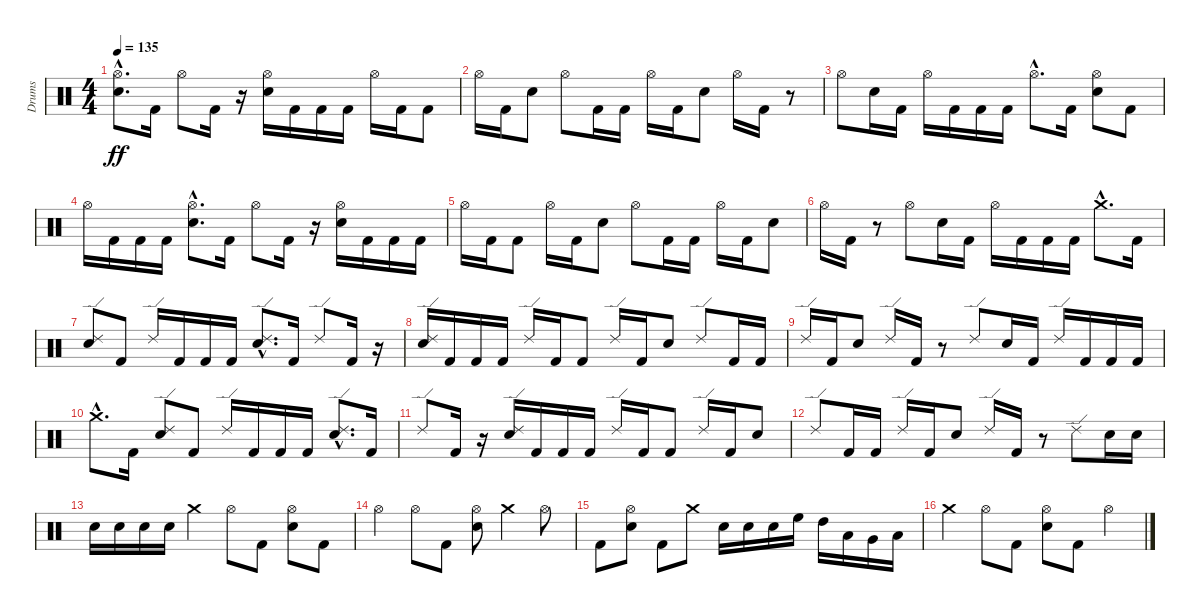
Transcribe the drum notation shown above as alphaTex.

\track ("Drums" "Drums") {instrument percussion}
\staff {score}
\articulation defaults
\ts (4 4)
\tempo 135
\clef neutral
\ks c
("Electric Snare (hit)"{hac} "Hi-Hat (open)"{hac}).8{d dy ff} "Kick (hit) 2".16 "Hi-Hat (open)".8 "Kick (hit) 2".16 r.16 ("Electric Snare (hit)" "Hi-Hat (open)").16 "Kick (hit) 2".16 "Kick (hit) 2".16 "Kick (hit) 2".16 "Hi-Hat (open)".16 "Kick (hit) 2".16 "Kick (hit) 2".8 |
"Hi-Hat (open)".16 "Kick (hit) 2".16 "Electric Snare (hit)".8 "Hi-Hat (open)".8 "Kick (hit) 2".16 "Kick (hit) 2".16 "Hi-Hat (open)".16 "Kick (hit) 2".16 "Electric Snare (hit)".8 "Hi-Hat (open)".16 "Kick (hit) 2".16 r.8 |
"Hi-Hat (open)".8 "Electric Snare (hit)".16 "Kick (hit) 2".16 "Hi-Hat (open)".16 "Kick (hit) 2".16 "Kick (hit) 2".16 "Kick (hit) 2".16 "Hi-Hat (open)"{hac}.8{d} "Kick (hit) 2".16 ("Electric Snare (hit)" "Hi-Hat (open)").8 "Kick (hit) 2".8 |
"Hi-Hat (open)".16 "Kick (hit) 2".16 "Kick (hit) 2".16 "Kick (hit) 2".16 ("Electric Snare (hit)"{hac} "Hi-Hat (open)"{hac}).8{d} "Kick (hit) 2".16 "Hi-Hat (open)".8 "Kick (hit) 2".16 r.16 ("Electric Snare (hit)" "Hi-Hat (open)").16 "Kick (hit) 2".16 "Kick (hit) 2".16 "Kick (hit) 2".16 |
"Hi-Hat (open)".16 "Kick (hit) 2".16 "Kick (hit) 2".8 "Hi-Hat (open)".16 "Kick (hit) 2".16 "Electric Snare (hit)".8 "Hi-Hat (open)".8 "Kick (hit) 2".16 "Kick (hit) 2".16 "Hi-Hat (open)".16 "Kick (hit) 2".16 "Electric Snare (hit)".8 |
"Hi-Hat (open)".16 "Kick (hit) 2".16 r.8 "Hi-Hat (open)".8 "Electric Snare (hit)".16 "Kick (hit) 2".16 "Hi-Hat (open)".16 "Kick (hit) 2".16 "Kick (hit) 2".16 "Kick (hit) 2".16 "Crash medium (hit)"{hac}.8{d} "Kick (hit) 2".16 |
("Electric Snare (hit)" "Ride (edge) 2").8 "Kick (hit) 2".8 "Ride (edge) 2".16 "Kick (hit) 2".16 "Kick (hit) 2".16 "Kick (hit) 2".16 ("Electric Snare (hit)"{hac} "Ride (edge) 2"{hac}).8{d} "Kick (hit) 2".16 "Ride (edge) 2".8 "Kick (hit) 2".16 r.16 |
("Electric Snare (hit)" "Ride (edge) 2").16 "Kick (hit) 2".16 "Kick (hit) 2".16 "Kick (hit) 2".16 "Ride (edge) 2".16 "Kick (hit) 2".16 "Kick (hit) 2".8 "Ride (edge) 2".16 "Kick (hit) 2".16 "Electric Snare (hit)".8 "Ride (edge) 2".8 "Kick (hit) 2".16 "Kick (hit) 2".16 |
"Ride (edge) 2".16 "Kick (hit) 2".16 "Electric Snare (hit)".8 "Ride (edge) 2".16 "Kick (hit) 2".16 r.8 "Ride (edge) 2".8 "Electric Snare (hit)".16 "Kick (hit) 2".16 "Ride (edge) 2".16 "Kick (hit) 2".16 "Kick (hit) 2".16 "Kick (hit) 2".16 |
"Crash medium (hit)"{hac}.8{d} "Kick (hit) 2".16 ("Electric Snare (hit)" "Ride (edge) 2").8 "Kick (hit) 2".8 "Ride (edge) 2".16 "Kick (hit) 2".16 "Kick (hit) 2".16 "Kick (hit) 2".16 ("Electric Snare (hit)"{hac} "Ride (edge) 2"{hac}).8{d} "Kick (hit) 2".16 |
"Ride (edge) 2".8 "Kick (hit) 2".16 r.16 ("Electric Snare (hit)" "Ride (edge) 2").16 "Kick (hit) 2".16 "Kick (hit) 2".16 "Kick (hit) 2".16 "Ride (edge) 2".16 "Kick (hit) 2".16 "Kick (hit) 2".8 "Ride (edge) 2".16 "Kick (hit) 2".16 "Electric Snare (hit)".8 |
"Ride (edge) 2".8 "Kick (hit) 2".16 "Kick (hit) 2".16 "Ride (edge) 2".16 "Kick (hit) 2".16 "Electric Snare (hit)".8 "Ride (edge) 2".16 "Kick (hit) 2".16 r.8 "Ride (edge) 2".8 "Electric Snare (hit)".16 "Electric Snare (hit)".16 |
"Electric Snare (hit)".16 "Electric Snare (hit)".16 "Electric Snare (hit)".16 "Electric Snare (hit)".16 "Crash medium (hit)".4 "Hi-Hat (open)".8 "Kick (hit) 2".8 ("Electric Snare (hit)" "Hi-Hat (open)").8 "Kick (hit) 2".8 |
"Hi-Hat (open)".4 "Hi-Hat (open)".8 "Kick (hit) 2".8 ("Electric Snare (hit)" "Hi-Hat (open)").8 "Crash medium (hit)".4 "Hi-Hat (open)".8 |
"Kick (hit) 2".8 ("Electric Snare (hit)" "Hi-Hat (open)").8 "Kick (hit) 2".8 "Crash medium (hit)".8 "Electric Snare (hit)".16 "Electric Snare (hit)".16 "Electric Snare (hit)".16 "High Floor Tom (hit)".16 "High Tom (hit)".16 "Low Tom (hit)".16 "Very Low Tom (hit)".16 "Low Floor Tom (hit)".16 |
"Crash medium (hit)".4 "Hi-Hat (open)".8 "Kick (hit) 2".8 ("Electric Snare (hit)" "Hi-Hat (open)").8 "Kick (hit) 2".8 "Hi-Hat (open)".4
